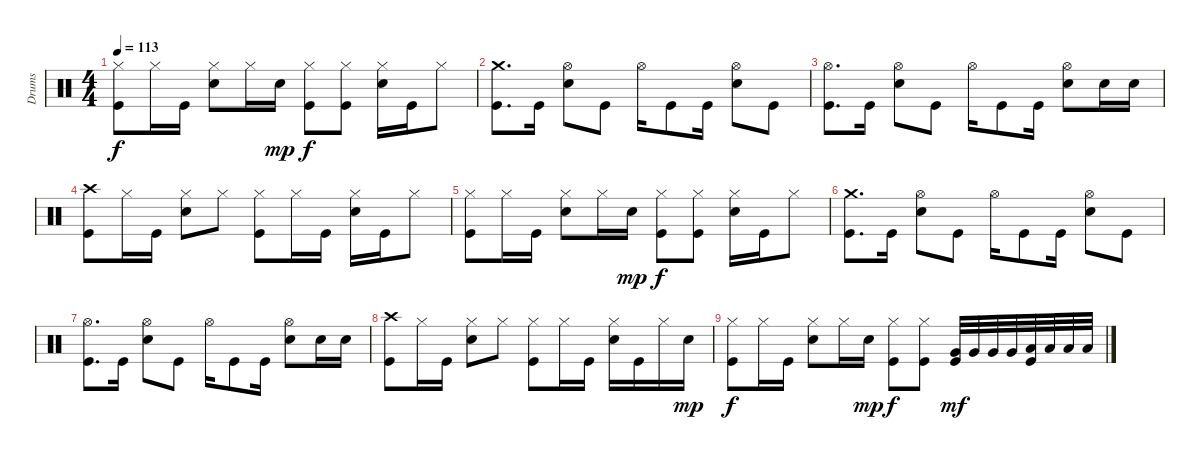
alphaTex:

\track ("Drums" "Drums") {instrument percussion}
\staff {score}
\articulation defaults
\ts (4 4)
\tempo 113
\clef neutral
\ks c
("Hi-Hat (closed)" "Kick (hit)").8{dy f} "Hi-Hat (closed)".16 "Kick (hit)".16 ("Hi-Hat (closed)" "Snare (hit) 2").8 "Hi-Hat (closed)".16 "Snare (hit) 2".16{dy mp} ("Hi-Hat (closed)" "Kick (hit)").8{dy f} ("Hi-Hat (closed)" "Kick (hit)").8 ("Hi-Hat (closed)" "Snare (hit) 2").16 "Kick (hit)".16 "Hi-Hat (closed)".8 |
("Crash medium (hit)" "Kick (hit)").8{d} "Kick (hit)".16 ("Hi-Hat (open)" "Snare (hit) 2").8 "Kick (hit)".8 "Hi-Hat (open)".16 "Kick (hit)".8 "Kick (hit)".16 ("Hi-Hat (open)" "Snare (hit) 2").8 "Kick (hit)".8 |
("Hi-Hat (open)" "Kick (hit)").8{d} "Kick (hit)".16 ("Hi-Hat (open)" "Snare (hit) 2").8 "Kick (hit)".8 "Hi-Hat (open)".16 "Kick (hit)".8 "Kick (hit)".16 ("Hi-Hat (open)" "Snare (hit) 2").8 "Snare (hit) 2".16 "Snare (hit) 2".16 |
("Crash high (hit)" "Kick (hit)").8 "Hi-Hat (closed)".16 "Kick (hit)".16 ("Hi-Hat (closed)" "Snare (hit) 2").8 "Hi-Hat (closed)".8 ("Hi-Hat (closed)" "Kick (hit)").8 "Hi-Hat (closed)".16 "Kick (hit)".16 ("Hi-Hat (closed)" "Snare (hit) 2").16 "Kick (hit)".16 "Hi-Hat (closed)".8 |
("Hi-Hat (closed)" "Kick (hit)").8 "Hi-Hat (closed)".16 "Kick (hit)".16 ("Hi-Hat (closed)" "Snare (hit) 2").8 "Hi-Hat (closed)".16 "Snare (hit) 2".16{dy mp} ("Hi-Hat (closed)" "Kick (hit)").8{dy f} ("Hi-Hat (closed)" "Kick (hit)").8 ("Hi-Hat (closed)" "Snare (hit) 2").16 "Kick (hit)".16 "Hi-Hat (closed)".8 |
("Crash medium (hit)" "Kick (hit)").8{d} "Kick (hit)".16 ("Hi-Hat (open)" "Snare (hit) 2").8 "Kick (hit)".8 "Hi-Hat (open)".16 "Kick (hit)".8 "Kick (hit)".16 ("Hi-Hat (open)" "Snare (hit) 2").8 "Kick (hit)".8 |
("Hi-Hat (open)" "Kick (hit)").8{d} "Kick (hit)".16 ("Hi-Hat (open)" "Snare (hit) 2").8 "Kick (hit)".8 "Hi-Hat (open)".16 "Kick (hit)".8 "Kick (hit)".16 ("Hi-Hat (open)" "Snare (hit) 2").8 "Snare (hit) 2".16 "Snare (hit) 2".16 |
("Crash high (hit)" "Kick (hit)").8 "Hi-Hat (closed)".16 "Kick (hit)".16 ("Hi-Hat (closed)" "Snare (hit) 2").8 "Hi-Hat (closed)".8 ("Hi-Hat (closed)" "Kick (hit)").8 "Hi-Hat (closed)".16 "Kick (hit)".16 ("Hi-Hat (closed)" "Snare (hit) 2").16 "Kick (hit)".16 "Hi-Hat (closed)".16 "Snare (hit) 2".16{dy mp} |
("Hi-Hat (closed)" "Kick (hit)").8{dy f} "Hi-Hat (closed)".16 "Kick (hit)".16 ("Hi-Hat (closed)" "Snare (hit) 2").8 "Hi-Hat (closed)".16 "Snare (hit) 2".16{dy mp} ("Hi-Hat (closed)" "Kick (hit)").8{dy f} ("Hi-Hat (closed)" "Kick (hit)").8 ("Very Low Tom (hit)" "Kick (hit)").32{dy mf} "Very Low Tom (hit)".32 "Very Low Tom (hit)".32 "Very Low Tom (hit)".32 ("Low Floor Tom (hit)" "Kick (hit)").32 "Low Floor Tom (hit)".32 "Low Floor Tom (hit)".32 "Low Floor Tom (hit)".32
